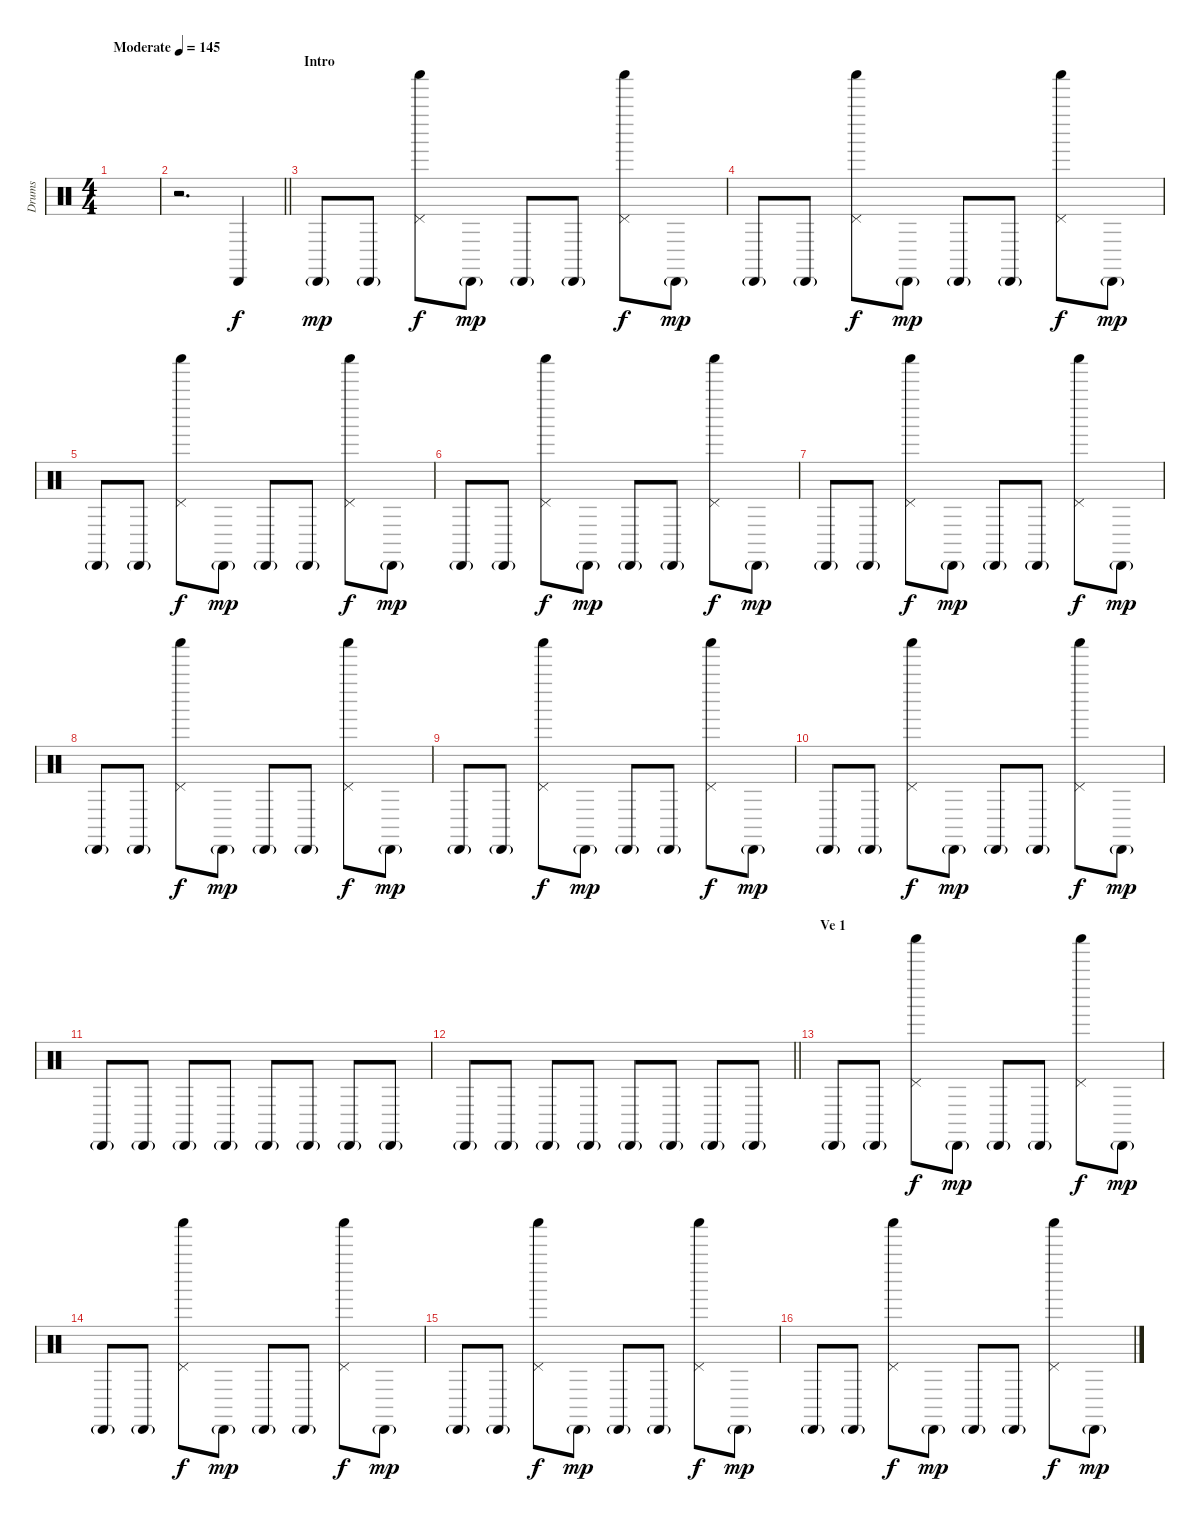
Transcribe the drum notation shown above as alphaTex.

\track ("Drums" "Drums") {instrument percussion}
\staff {score}
\articulation defaults
\ts (4 4)
\tempo (145 "Moderate")
\clef neutral
\ks c
|
\barLineRight lightlight
r.2{d} "Cabasa (hit)".4 |
\section ("" "Intro")
"Cabasa (hit)"{g}.8{dy mp} "Cabasa (hit)"{g}.8 ("Shaker (hit)" "Pedal Hi-Hat (hit)").8{dy f} "Cabasa (hit)"{g}.8{dy mp} "Cabasa (hit)"{g}.8 "Cabasa (hit)"{g}.8 ("Shaker (hit)" "Pedal Hi-Hat (hit)").8{dy f} "Cabasa (hit)"{g}.8{dy mp} |
"Cabasa (hit)"{g}.8 "Cabasa (hit)"{g}.8 ("Shaker (hit)" "Pedal Hi-Hat (hit)").8{dy f} "Cabasa (hit)"{g}.8{dy mp} "Cabasa (hit)"{g}.8 "Cabasa (hit)"{g}.8 ("Shaker (hit)" "Pedal Hi-Hat (hit)").8{dy f} "Cabasa (hit)"{g}.8{dy mp} |
"Cabasa (hit)"{g}.8 "Cabasa (hit)"{g}.8 ("Shaker (hit)" "Pedal Hi-Hat (hit)").8{dy f} "Cabasa (hit)"{g}.8{dy mp} "Cabasa (hit)"{g}.8 "Cabasa (hit)"{g}.8 ("Shaker (hit)" "Pedal Hi-Hat (hit)").8{dy f} "Cabasa (hit)"{g}.8{dy mp} |
"Cabasa (hit)"{g}.8 "Cabasa (hit)"{g}.8 ("Shaker (hit)" "Pedal Hi-Hat (hit)").8{dy f} "Cabasa (hit)"{g}.8{dy mp} "Cabasa (hit)"{g}.8 "Cabasa (hit)"{g}.8 ("Shaker (hit)" "Pedal Hi-Hat (hit)").8{dy f} "Cabasa (hit)"{g}.8{dy mp} |
"Cabasa (hit)"{g}.8 "Cabasa (hit)"{g}.8 ("Shaker (hit)" "Pedal Hi-Hat (hit)").8{dy f} "Cabasa (hit)"{g}.8{dy mp} "Cabasa (hit)"{g}.8 "Cabasa (hit)"{g}.8 ("Shaker (hit)" "Pedal Hi-Hat (hit)").8{dy f} "Cabasa (hit)"{g}.8{dy mp} |
"Cabasa (hit)"{g}.8 "Cabasa (hit)"{g}.8 ("Shaker (hit)" "Pedal Hi-Hat (hit)").8{dy f} "Cabasa (hit)"{g}.8{dy mp} "Cabasa (hit)"{g}.8 "Cabasa (hit)"{g}.8 ("Shaker (hit)" "Pedal Hi-Hat (hit)").8{dy f} "Cabasa (hit)"{g}.8{dy mp} |
"Cabasa (hit)"{g}.8 "Cabasa (hit)"{g}.8 ("Shaker (hit)" "Pedal Hi-Hat (hit)").8{dy f} "Cabasa (hit)"{g}.8{dy mp} "Cabasa (hit)"{g}.8 "Cabasa (hit)"{g}.8 ("Shaker (hit)" "Pedal Hi-Hat (hit)").8{dy f} "Cabasa (hit)"{g}.8{dy mp} |
"Cabasa (hit)"{g}.8 "Cabasa (hit)"{g}.8 ("Shaker (hit)" "Pedal Hi-Hat (hit)").8{dy f} "Cabasa (hit)"{g}.8{dy mp} "Cabasa (hit)"{g}.8 "Cabasa (hit)"{g}.8 ("Shaker (hit)" "Pedal Hi-Hat (hit)").8{dy f} "Cabasa (hit)"{g}.8{dy mp} |
"Cabasa (hit)"{g}.8 "Cabasa (hit)"{g}.8 "Cabasa (hit)"{g}.8 "Cabasa (hit)"{g}.8 "Cabasa (hit)"{g}.8 "Cabasa (hit)"{g}.8 "Cabasa (hit)"{g}.8 "Cabasa (hit)"{g}.8 |
\barLineRight lightlight "Cabasa (hit)"{g}.8 "Cabasa (hit)"{g}.8 "Cabasa (hit)"{g}.8 "Cabasa (hit)"{g}.8 "Cabasa (hit)"{g}.8 "Cabasa (hit)"{g}.8 "Cabasa (hit)"{g}.8 "Cabasa (hit)"{g}.8
|
\section ("" "Ve 1")
"Cabasa (hit)"{g}.8 "Cabasa (hit)"{g}.8 ("Shaker (hit)" "Pedal Hi-Hat (hit)").8{dy f} "Cabasa (hit)"{g}.8{dy mp} "Cabasa (hit)"{g}.8 "Cabasa (hit)"{g}.8 ("Shaker (hit)" "Pedal Hi-Hat (hit)").8{dy f} "Cabasa (hit)"{g}.8{dy mp} |
"Cabasa (hit)"{g}.8 "Cabasa (hit)"{g}.8 ("Shaker (hit)" "Pedal Hi-Hat (hit)").8{dy f} "Cabasa (hit)"{g}.8{dy mp} "Cabasa (hit)"{g}.8 "Cabasa (hit)"{g}.8 ("Shaker (hit)" "Pedal Hi-Hat (hit)").8{dy f} "Cabasa (hit)"{g}.8{dy mp} |
"Cabasa (hit)"{g}.8 "Cabasa (hit)"{g}.8 ("Shaker (hit)" "Pedal Hi-Hat (hit)").8{dy f} "Cabasa (hit)"{g}.8{dy mp} "Cabasa (hit)"{g}.8 "Cabasa (hit)"{g}.8 ("Shaker (hit)" "Pedal Hi-Hat (hit)").8{dy f} "Cabasa (hit)"{g}.8{dy mp} |
"Cabasa (hit)"{g}.8 "Cabasa (hit)"{g}.8 ("Shaker (hit)" "Pedal Hi-Hat (hit)").8{dy f} "Cabasa (hit)"{g}.8{dy mp} "Cabasa (hit)"{g}.8 "Cabasa (hit)"{g}.8 ("Shaker (hit)" "Pedal Hi-Hat (hit)").8{dy f} "Cabasa (hit)"{g}.8{dy mp}
